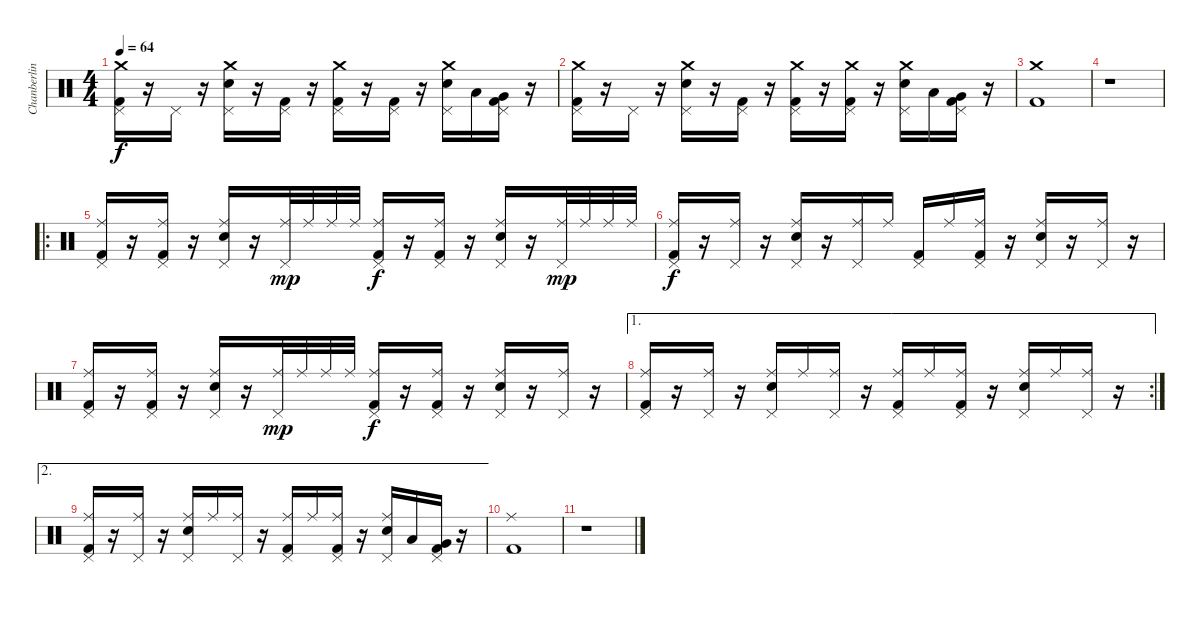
\track ("Chanberlin" "Chanberlin") {instrument percussion}
\staff {score}
\articulation defaults
\ts (4 4)
\tempo 64
\clef neutral
\ks c
("Crash medium (hit)" "Pedal Hi-Hat (hit)" "Kick (hit) 2").16{dy f} r.16 "Pedal Hi-Hat (hit)".16 r.16 ("Crash medium (hit)" "Pedal Hi-Hat (hit)" "Snare (hit) 2").16 r.16 ("Pedal Hi-Hat (hit)" "Kick (hit) 2").16 r.16 ("Crash medium (hit)" "Pedal Hi-Hat (hit)" "Kick (hit) 2").16 r.16 ("Pedal Hi-Hat (hit)" "Kick (hit) 2").16 r.16 ("Crash medium (hit)" "Pedal Hi-Hat (hit)" "Snare (hit) 2").16 "Low Tom (hit)".16 ("Pedal Hi-Hat (hit)" "Very Low Tom (hit)" "Kick (hit) 2").16 r.16 |
("Crash medium (hit)" "Pedal Hi-Hat (hit)" "Kick (hit) 2").16 r.16 "Pedal Hi-Hat (hit)".16 r.16 ("Crash medium (hit)" "Pedal Hi-Hat (hit)" "Snare (hit) 2").16 r.16 ("Pedal Hi-Hat (hit)" "Kick (hit) 2").16 r.16 ("Crash medium (hit)" "Pedal Hi-Hat (hit)" "Kick (hit) 2").16 r.16 ("Crash medium (hit)" "Pedal Hi-Hat (hit)" "Kick (hit) 2").16 r.16 ("Crash medium (hit)" "Pedal Hi-Hat (hit)" "Snare (hit) 2").16 "Low Tom (hit)".16 ("Pedal Hi-Hat (hit)" "Very Low Tom (hit)" "Kick (hit) 2").16 r.16 |
("Crash medium (hit)" "Kick (hit) 2").1 |
r.1 |
\ro
("Ride (middle)" "Pedal Hi-Hat (hit)" "Kick (hit) 2").16{volume 7} r.16 ("Ride (middle)" "Pedal Hi-Hat (hit)" "Kick (hit) 2").16 r.16 ("Ride (middle)" "Pedal Hi-Hat (hit)" "Snare (hit) 2").16 r.16 ("Ride (middle)" "Pedal Hi-Hat (hit)").32{dy mp} "Ride (middle)".32 "Ride (middle)".32 "Ride (middle)".32 ("Ride (middle)" "Pedal Hi-Hat (hit)" "Kick (hit) 2").16{dy f} r.16 ("Ride (middle)" "Pedal Hi-Hat (hit)" "Kick (hit) 2").16 r.16 ("Ride (middle)" "Pedal Hi-Hat (hit)" "Snare (hit) 2").16 r.16 ("Ride (middle)" "Pedal Hi-Hat (hit)").32{dy mp} "Ride (middle)".32 "Ride (middle)".32 "Ride (middle)".32 |
("Ride (middle)" "Pedal Hi-Hat (hit)" "Kick (hit) 2").16{dy f} r.16 ("Ride (middle)" "Pedal Hi-Hat (hit)").16 r.16 ("Ride (middle)" "Pedal Hi-Hat (hit)" "Snare (hit) 2").16 r.16 ("Ride (middle)" "Pedal Hi-Hat (hit)").16 "Ride (middle)".16 ("Pedal Hi-Hat (hit)" "Kick (hit) 2").16 "Ride (middle)".16 ("Ride (middle)" "Pedal Hi-Hat (hit)" "Kick (hit) 2").16 r.16 ("Ride (middle)" "Pedal Hi-Hat (hit)" "Snare (hit) 2").16 r.16 ("Ride (middle)" "Pedal Hi-Hat (hit)").16 r.16 |
("Ride (middle)" "Pedal Hi-Hat (hit)" "Kick (hit) 2").16 r.16 ("Ride (middle)" "Pedal Hi-Hat (hit)" "Kick (hit) 2").16 r.16 ("Ride (middle)" "Pedal Hi-Hat (hit)" "Snare (hit) 2").16 r.16 ("Ride (middle)" "Pedal Hi-Hat (hit)").32{dy mp} "Ride (middle)".32 "Ride (middle)".32 "Ride (middle)".32 ("Ride (middle)" "Pedal Hi-Hat (hit)" "Kick (hit) 2").16{dy f} r.16 ("Ride (middle)" "Pedal Hi-Hat (hit)" "Kick (hit) 2").16 r.16 ("Ride (middle)" "Pedal Hi-Hat (hit)" "Snare (hit) 2").16 r.16 ("Ride (middle)" "Pedal Hi-Hat (hit)").16 r.16 |
\ae 1
\rc 2
("Ride (middle)" "Pedal Hi-Hat (hit)" "Kick (hit) 2").16 r.16 ("Ride (middle)" "Pedal Hi-Hat (hit)").16 r.16 ("Ride (middle)" "Pedal Hi-Hat (hit)" "Snare (hit) 2").16 "Ride (middle)".16 ("Ride (middle)" "Pedal Hi-Hat (hit)").16 r.16 ("Ride (middle)" "Pedal Hi-Hat (hit)" "Kick (hit) 2").16 "Ride (middle)".16 ("Ride (middle)" "Pedal Hi-Hat (hit)" "Kick (hit) 2").16 r.16 ("Ride (middle)" "Pedal Hi-Hat (hit)" "Snare (hit) 2").16 "Ride (middle)".16 ("Ride (middle)" "Pedal Hi-Hat (hit)").16 r.16 |
\ae 2
("Ride (middle)" "Pedal Hi-Hat (hit)" "Kick (hit) 2").16 r.16 ("Ride (middle)" "Pedal Hi-Hat (hit)").16 r.16 ("Ride (middle)" "Pedal Hi-Hat (hit)" "Snare (hit) 2").16 "Ride (middle)".16 ("Ride (middle)" "Pedal Hi-Hat (hit)").16 r.16 ("Ride (middle)" "Pedal Hi-Hat (hit)" "Kick (hit) 2").16 "Ride (middle)".16 ("Ride (middle)" "Pedal Hi-Hat (hit)" "Kick (hit) 2").16 r.16 ("Ride (middle)" "Pedal Hi-Hat (hit)" "Snare (hit) 2").16 "Low Tom (hit)".16 ("Pedal Hi-Hat (hit)" "Very Low Tom (hit)" "Kick (hit) 2").16 r.16 |
("Ride (middle)" "Kick (hit) 2").1 |
r.1
